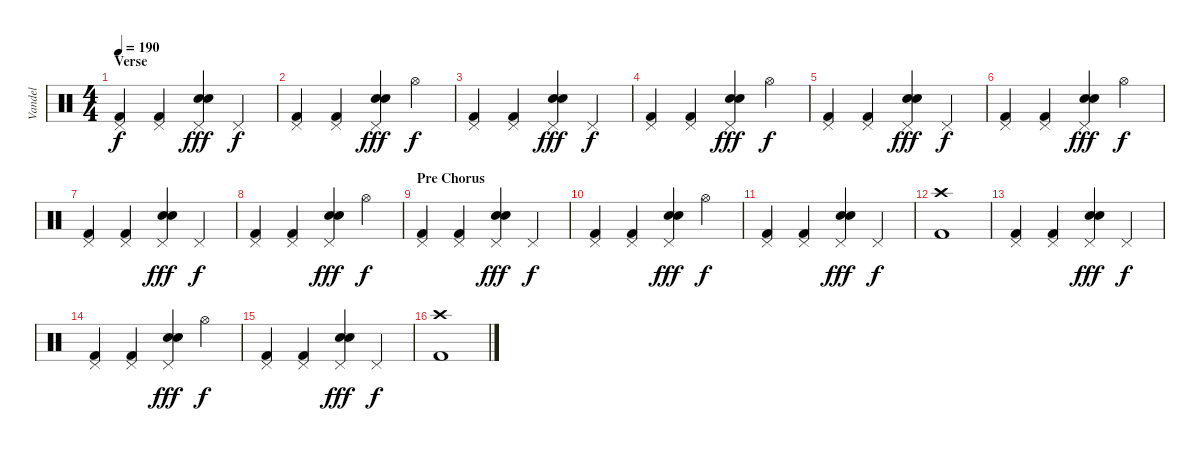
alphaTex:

\track ("Vandel" "Vandel") {instrument percussion}
\staff {score}
\articulation defaults
\ts (4 4)
\section ("" "Verse")
\tempo 190
\clef neutral
\ks c
("Pedal Hi-Hat (hit)" "Kick (hit) 2").4{dy f} ("Pedal Hi-Hat (hit)" "Kick (hit) 2").4 ("Pedal Hi-Hat (hit)" "Electric Snare (hit)" "Electric Snare (hit)").4{dy fff} "Pedal Hi-Hat (hit)".4{dy f} |
("Pedal Hi-Hat (hit)" "Kick (hit) 2").4 ("Pedal Hi-Hat (hit)" "Kick (hit) 2").4 ("Pedal Hi-Hat (hit)" "Electric Snare (hit)" "Electric Snare (hit)").4{dy fff} "Hi-Hat (open)".4{dy f} |
("Pedal Hi-Hat (hit)" "Kick (hit) 2").4 ("Pedal Hi-Hat (hit)" "Kick (hit) 2").4 ("Pedal Hi-Hat (hit)" "Electric Snare (hit)" "Electric Snare (hit)").4{dy fff} "Pedal Hi-Hat (hit)".4{dy f} |
("Pedal Hi-Hat (hit)" "Kick (hit) 2").4 ("Pedal Hi-Hat (hit)" "Kick (hit) 2").4 ("Pedal Hi-Hat (hit)" "Electric Snare (hit)" "Electric Snare (hit)").4{dy fff} "Hi-Hat (open)".4{dy f} |
("Pedal Hi-Hat (hit)" "Kick (hit) 2").4 ("Pedal Hi-Hat (hit)" "Kick (hit) 2").4 ("Pedal Hi-Hat (hit)" "Electric Snare (hit)" "Electric Snare (hit)").4{dy fff} "Pedal Hi-Hat (hit)".4{dy f} |
("Pedal Hi-Hat (hit)" "Kick (hit) 2").4 ("Pedal Hi-Hat (hit)" "Kick (hit) 2").4 ("Pedal Hi-Hat (hit)" "Electric Snare (hit)" "Electric Snare (hit)").4{dy fff} "Hi-Hat (open)".4{dy f} |
("Pedal Hi-Hat (hit)" "Kick (hit) 2").4 ("Pedal Hi-Hat (hit)" "Kick (hit) 2").4 ("Pedal Hi-Hat (hit)" "Electric Snare (hit)" "Electric Snare (hit)").4{dy fff} "Pedal Hi-Hat (hit)".4{dy f} |
("Pedal Hi-Hat (hit)" "Kick (hit) 2").4 ("Pedal Hi-Hat (hit)" "Kick (hit) 2").4 ("Pedal Hi-Hat (hit)" "Electric Snare (hit)" "Electric Snare (hit)").4{dy fff} "Hi-Hat (open)".4{dy f} |
\section ("" "Pre Chorus")
("Pedal Hi-Hat (hit)" "Kick (hit) 2").4 ("Pedal Hi-Hat (hit)" "Kick (hit) 2").4 ("Pedal Hi-Hat (hit)" "Electric Snare (hit)" "Electric Snare (hit)").4{dy fff} "Pedal Hi-Hat (hit)".4{dy f} |
("Pedal Hi-Hat (hit)" "Kick (hit) 2").4 ("Pedal Hi-Hat (hit)" "Kick (hit) 2").4 ("Pedal Hi-Hat (hit)" "Electric Snare (hit)" "Electric Snare (hit)").4{dy fff} "Hi-Hat (open)".4{dy f} |
("Pedal Hi-Hat (hit)" "Kick (hit) 2").4 ("Pedal Hi-Hat (hit)" "Kick (hit) 2").4 ("Pedal Hi-Hat (hit)" "Electric Snare (hit)" "Electric Snare (hit)").4{dy fff} "Pedal Hi-Hat (hit)".4{dy f} |
("Kick (hit) 2" "Crash high (hit)").1 |
("Pedal Hi-Hat (hit)" "Kick (hit) 2").4 ("Pedal Hi-Hat (hit)" "Kick (hit) 2").4 ("Pedal Hi-Hat (hit)" "Electric Snare (hit)" "Electric Snare (hit)").4{dy fff} "Pedal Hi-Hat (hit)".4{dy f} |
("Pedal Hi-Hat (hit)" "Kick (hit) 2").4 ("Pedal Hi-Hat (hit)" "Kick (hit) 2").4 ("Pedal Hi-Hat (hit)" "Electric Snare (hit)" "Electric Snare (hit)").4{dy fff} "Hi-Hat (open)".4{dy f} |
("Pedal Hi-Hat (hit)" "Kick (hit) 2").4 ("Pedal Hi-Hat (hit)" "Kick (hit) 2").4 ("Pedal Hi-Hat (hit)" "Electric Snare (hit)" "Electric Snare (hit)").4{dy fff} "Pedal Hi-Hat (hit)".4{dy f} |
("Kick (hit) 2" "Crash high (hit)").1
